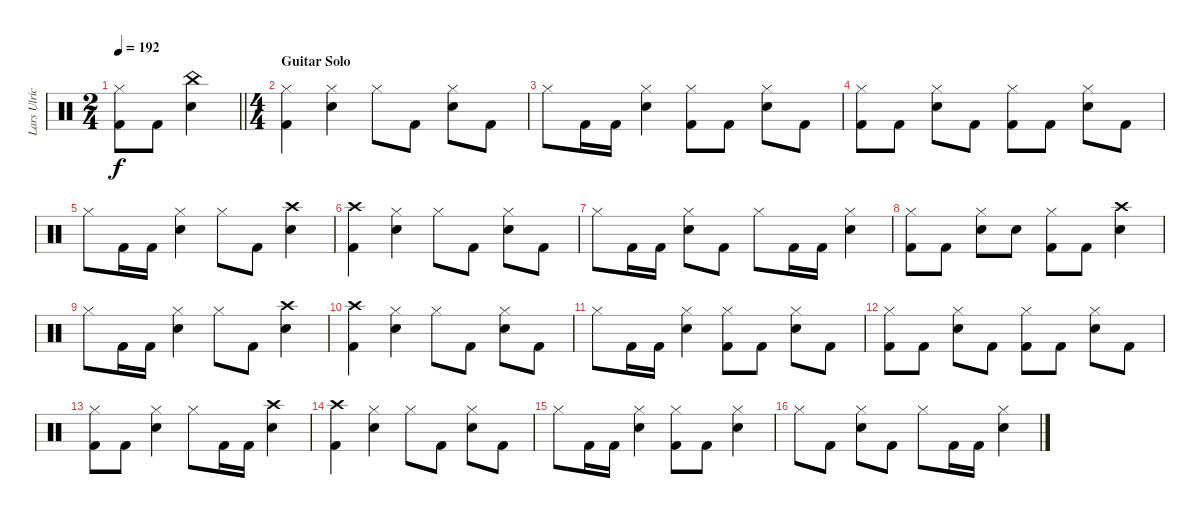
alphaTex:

\track ("Lars Ulrich - Drums" "Lars Ulric") {instrument percussion}
\staff {score}
\articulation defaults
\ts (2 4)
\tempo 192
\clef neutral
\barLineRight lightlight
\ks c
("Hi-Hat (closed)" "Kick (hit) 2").8{dy f} "Kick (hit) 2".8 ("China (hit)" "Snare (hit) 2").4 |
\ts (4 4)
\section ("" "Guitar Solo")
("Hi-Hat (closed)" "Kick (hit) 2").4 ("Hi-Hat (closed)" "Snare (hit) 2").4 "Hi-Hat (closed)".8 "Kick (hit) 2".8 ("Hi-Hat (closed)" "Snare (hit) 2").8 "Kick (hit) 2".8 |
"Hi-Hat (closed)".8 "Kick (hit) 2".16 "Kick (hit) 2".16 ("Hi-Hat (closed)" "Snare (hit) 2").4 ("Hi-Hat (closed)" "Kick (hit) 2").8 "Kick (hit) 2".8 ("Hi-Hat (closed)" "Snare (hit) 2").8 "Kick (hit) 2".8 |
("Hi-Hat (closed)" "Kick (hit) 2").8 "Kick (hit) 2".8 ("Hi-Hat (closed)" "Snare (hit) 2").8 "Kick (hit) 2".8 ("Hi-Hat (closed)" "Kick (hit) 2").8 "Kick (hit) 2".8 ("Hi-Hat (closed)" "Snare (hit) 2").8 "Kick (hit) 2".8 |
"Hi-Hat (closed)".8 "Kick (hit) 2".16 "Kick (hit) 2".16 ("Hi-Hat (closed)" "Snare (hit) 2").4 "Hi-Hat (closed)".8 "Kick (hit) 2".8 ("Crash high (hit)" "Snare (hit) 2").4 |
("Crash high (hit)" "Kick (hit) 2").4 ("Hi-Hat (closed)" "Snare (hit) 2").4 "Hi-Hat (closed)".8 "Kick (hit) 2".8 ("Hi-Hat (closed)" "Snare (hit) 2").8 "Kick (hit) 2".8 |
"Hi-Hat (closed)".8 "Kick (hit) 2".16 "Kick (hit) 2".16 ("Hi-Hat (closed)" "Snare (hit) 2").8 "Kick (hit) 2".8 "Hi-Hat (closed)".8 "Kick (hit) 2".16 "Kick (hit) 2".16 ("Hi-Hat (closed)" "Snare (hit) 2").4 |
("Hi-Hat (closed)" "Kick (hit) 2").8 "Kick (hit) 2".8 ("Hi-Hat (closed)" "Snare (hit) 2").8 "Snare (hit) 2".8 ("Hi-Hat (closed)" "Kick (hit) 2").8 "Kick (hit) 2".8 ("Crash high (hit)" "Snare (hit) 2").4 |
"Hi-Hat (closed)".8 "Kick (hit) 2".16 "Kick (hit) 2".16 ("Hi-Hat (closed)" "Snare (hit) 2").4 "Hi-Hat (closed)".8 "Kick (hit) 2".8 ("Crash high (hit)" "Snare (hit) 2").4 |
("Crash high (hit)" "Kick (hit) 2").4 ("Hi-Hat (closed)" "Snare (hit) 2").4 "Hi-Hat (closed)".8 "Kick (hit) 2".8 ("Hi-Hat (closed)" "Snare (hit) 2").8 "Kick (hit) 2".8 |
"Hi-Hat (closed)".8 "Kick (hit) 2".16 "Kick (hit) 2".16 ("Hi-Hat (closed)" "Snare (hit) 2").4 ("Hi-Hat (closed)" "Kick (hit) 2").8 "Kick (hit) 2".8 ("Hi-Hat (closed)" "Snare (hit) 2").8 "Kick (hit) 2".8 |
("Hi-Hat (closed)" "Kick (hit) 2").8 "Kick (hit) 2".8 ("Hi-Hat (closed)" "Snare (hit) 2").8 "Kick (hit) 2".8 ("Hi-Hat (closed)" "Kick (hit) 2").8 "Kick (hit) 2".8 ("Hi-Hat (closed)" "Snare (hit) 2").8 "Kick (hit) 2".8 |
("Hi-Hat (closed)" "Kick (hit) 2").8 "Kick (hit) 2".8 ("Hi-Hat (closed)" "Snare (hit) 2").4 "Hi-Hat (closed)".8 "Kick (hit) 2".16 "Kick (hit) 2".16 ("Crash high (hit)" "Snare (hit) 2").4 |
("Crash high (hit)" "Kick (hit) 2").4 ("Hi-Hat (closed)" "Snare (hit) 2").4 "Hi-Hat (closed)".8 "Kick (hit) 2".8 ("Hi-Hat (closed)" "Snare (hit) 2").8 "Kick (hit) 2".8 |
"Hi-Hat (closed)".8 "Kick (hit) 2".16 "Kick (hit) 2".16 ("Hi-Hat (closed)" "Snare (hit) 2").4 ("Hi-Hat (closed)" "Kick (hit) 2").8 "Kick (hit) 2".8 ("Hi-Hat (closed)" "Snare (hit) 2").4 |
"Hi-Hat (closed)".8 "Kick (hit) 2".8 ("Hi-Hat (closed)" "Snare (hit) 2").8 "Kick (hit) 2".8 "Hi-Hat (closed)".8 "Kick (hit) 2".16 "Kick (hit) 2".16 ("Hi-Hat (closed)" "Snare (hit) 2").4
